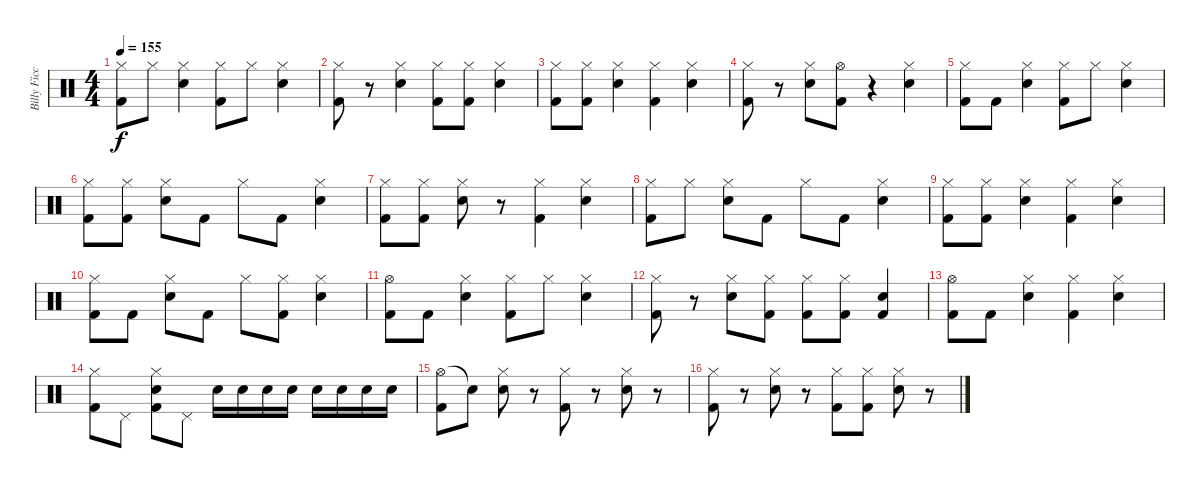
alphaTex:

\track ("Billy Ficca" "Billy Ficc") {instrument percussion}
\staff {score}
\articulation defaults
\ts (4 4)
\tempo 155
\clef neutral
\ks c
("Hi-Hat (closed)" "Kick (hit) 2").8{dy f} "Hi-Hat (closed)".8 ("Hi-Hat (closed)" "Electric Snare (hit)").4 ("Hi-Hat (closed)" "Kick (hit) 2").8 "Hi-Hat (closed)".8 ("Hi-Hat (closed)" "Electric Snare (hit)").4 |
("Hi-Hat (closed)" "Kick (hit) 2").8 r.8 ("Hi-Hat (closed)" "Electric Snare (hit)").4 ("Hi-Hat (closed)" "Kick (hit) 2").8 ("Hi-Hat (closed)" "Kick (hit) 2").8 ("Hi-Hat (closed)" "Electric Snare (hit)").4 |
("Hi-Hat (closed)" "Kick (hit) 2").8 ("Hi-Hat (closed)" "Kick (hit) 2").8 ("Hi-Hat (closed)" "Electric Snare (hit)").4 ("Hi-Hat (closed)" "Kick (hit) 2").4 ("Hi-Hat (closed)" "Electric Snare (hit)").4 |
("Hi-Hat (closed)" "Kick (hit) 2").8 r.8 ("Hi-Hat (closed)" "Electric Snare (hit)").8 ("Hi-Hat (open)" "Kick (hit) 2").8 r.4 ("Hi-Hat (closed)" "Electric Snare (hit)").4 |
("Hi-Hat (closed)" "Kick (hit) 2").8 "Kick (hit) 2".8 ("Hi-Hat (closed)" "Electric Snare (hit)").4 ("Hi-Hat (closed)" "Kick (hit) 2").8 "Hi-Hat (closed)".8 ("Hi-Hat (closed)" "Electric Snare (hit)").4 |
("Hi-Hat (closed)" "Kick (hit) 2").8 ("Hi-Hat (closed)" "Kick (hit) 2").8 ("Hi-Hat (closed)" "Electric Snare (hit)").8 "Kick (hit) 2".8 "Hi-Hat (closed)".8 "Kick (hit) 2".8 ("Hi-Hat (closed)" "Electric Snare (hit)").4 |
("Hi-Hat (closed)" "Kick (hit) 2").8 ("Hi-Hat (closed)" "Kick (hit) 2").8 ("Hi-Hat (closed)" "Electric Snare (hit)").8 r.8 ("Hi-Hat (closed)" "Kick (hit) 2").4 ("Hi-Hat (closed)" "Electric Snare (hit)").4 |
("Hi-Hat (closed)" "Kick (hit) 2").8 "Hi-Hat (closed)".8 ("Hi-Hat (closed)" "Electric Snare (hit)").8 "Kick (hit) 2".8 "Hi-Hat (closed)".8 "Kick (hit) 2".8 ("Hi-Hat (closed)" "Electric Snare (hit)").4 |
("Hi-Hat (closed)" "Kick (hit) 2").8 ("Hi-Hat (closed)" "Kick (hit) 2").8 ("Hi-Hat (closed)" "Electric Snare (hit)").4 ("Hi-Hat (closed)" "Kick (hit) 2").4 ("Hi-Hat (closed)" "Electric Snare (hit)").4 |
("Hi-Hat (closed)" "Kick (hit) 2").8 "Kick (hit) 2".8 ("Hi-Hat (closed)" "Electric Snare (hit)").8 "Kick (hit) 2".8 "Hi-Hat (closed)".8 ("Hi-Hat (closed)" "Kick (hit) 2").8 ("Hi-Hat (closed)" "Electric Snare (hit)").4 |
("Hi-Hat (open)" "Kick (hit) 2").8 "Kick (hit) 2".8 ("Hi-Hat (closed)" "Electric Snare (hit)").4 ("Hi-Hat (closed)" "Kick (hit) 2").8 "Hi-Hat (closed)".8 ("Hi-Hat (closed)" "Electric Snare (hit)").4 |
("Hi-Hat (closed)" "Kick (hit) 2").8 r.8 ("Hi-Hat (closed)" "Electric Snare (hit)").8 ("Hi-Hat (closed)" "Kick (hit) 2").8 ("Hi-Hat (closed)" "Kick (hit) 2").8 ("Hi-Hat (closed)" "Kick (hit) 2").8 ("Electric Snare (hit)" "Kick (hit) 2").4 |
("Hi-Hat (open)" "Kick (hit) 2").8 "Kick (hit) 2".8 ("Hi-Hat (closed)" "Electric Snare (hit)").4 ("Hi-Hat (closed)" "Kick (hit) 2").4 ("Hi-Hat (closed)" "Electric Snare (hit)").4 |
("Hi-Hat (closed)" "Kick (hit) 2").8 "Pedal Hi-Hat (hit)".8 ("Hi-Hat (closed)" "Electric Snare (hit)" "Kick (hit) 2").8 "Pedal Hi-Hat (hit)".8 "Electric Snare (hit)".16 "Electric Snare (hit)".16 "Electric Snare (hit)".16 "Electric Snare (hit)".16 "Electric Snare (hit)".16 "Electric Snare (hit)".16 "Electric Snare (hit)".16 "Electric Snare (hit)".16 |
("Hi-Hat (open)" "Kick (hit) 2").8 "Snare (hit)"{t}.8 ("Hi-Hat (closed)" "Electric Snare (hit)").8 r.8 ("Hi-Hat (closed)" "Kick (hit) 2").8 r.8 ("Hi-Hat (closed)" "Electric Snare (hit)").8 r.8 |
("Hi-Hat (closed)" "Kick (hit) 2").8 r.8 ("Hi-Hat (closed)" "Electric Snare (hit)").8 r.8 ("Hi-Hat (closed)" "Kick (hit) 2").8 ("Hi-Hat (closed)" "Kick (hit) 2").8 ("Hi-Hat (closed)" "Electric Snare (hit)").8 r.8
